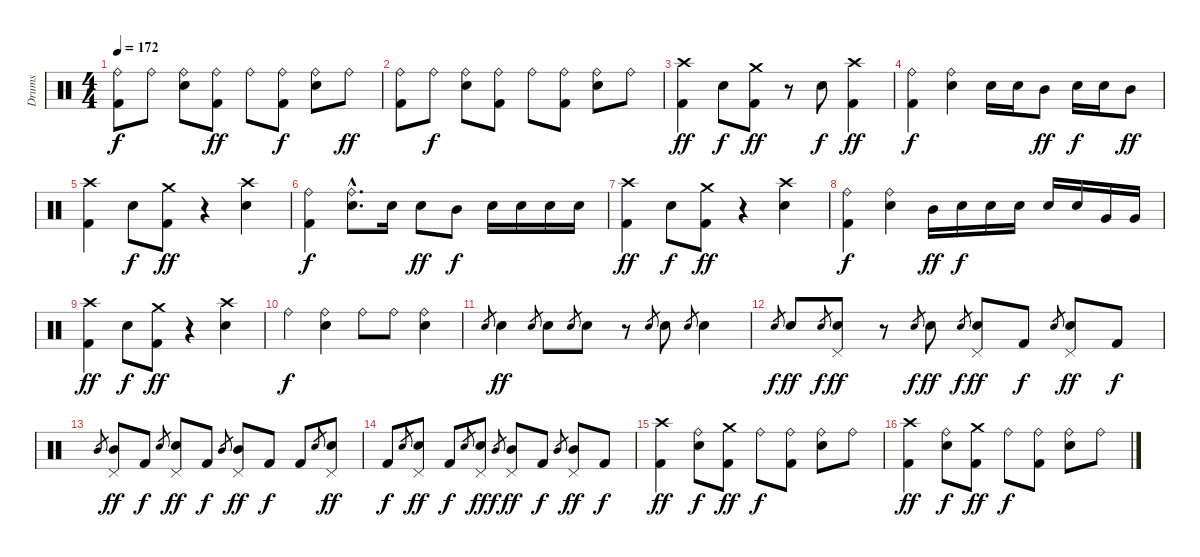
\track ("Drums" "Drums") {instrument percussion}
\staff {score}
\articulation defaults
\ts (4 4)
\tempo 172
\clef neutral
\ks c
("Ride (bell)" "Kick (hit) 2").8{dy f} "Ride (bell)".8 ("Ride (bell)" "Electric Snare (hit)").8 ("Ride (bell)" "Kick (hit) 2").8{dy ff} "Ride (bell)".8 ("Ride (bell)" "Kick (hit) 2").8{dy f} ("Ride (bell)" "Electric Snare (hit)").8 "Ride (bell)".8{dy ff} |
("Ride (bell)" "Kick (hit) 2").8 "Ride (bell)".8{dy f} ("Ride (bell)" "Electric Snare (hit)").8 ("Ride (bell)" "Kick (hit) 2").8 "Ride (bell)".8 ("Ride (bell)" "Kick (hit) 2").8 ("Ride (bell)" "Electric Snare (hit)").8 "Ride (bell)".8 |
("Crash high (hit)" "Kick (hit) 2").4{dy ff} "Electric Snare (hit)".8{dy f} ("Crash medium (hit)" "Kick (hit) 2").8{dy ff} r.8 "Electric Snare (hit)".8{dy f} ("Crash high (hit)" "Kick (hit) 2").4{dy ff} |
("Ride (bell)" "Kick (hit) 2").4{dy f} ("Ride (bell)" "Electric Snare (hit)").4 "Electric Snare (hit)".16 "Electric Snare (hit)".16 "Mid Tom (hit)".8{dy ff} "Electric Snare (hit)".16{dy f} "Electric Snare (hit)".16 "Mid Tom (hit)".8{dy ff} |
("Crash high (hit)" "Kick (hit) 2").4 "Electric Snare (hit)".8{dy f} ("Crash medium (hit)" "Kick (hit) 2").8{dy ff} r.4 ("Crash high (hit)" "Electric Snare (hit)").4 |
("Ride (bell)" "Kick (hit) 2").4{dy f} ("Ride (bell)"{hac} "Electric Snare (hit)"{hac}).8{d} "Electric Snare (hit)".16 "Electric Snare (hit)".8{dy ff} "Mid Tom (hit)".8{dy f} "Electric Snare (hit)".16 "Electric Snare (hit)".16 "Electric Snare (hit)".16 "Electric Snare (hit)".16 |
("Crash high (hit)" "Kick (hit) 2").4{dy ff} "Electric Snare (hit)".8{dy f} ("Crash medium (hit)" "Kick (hit) 2").8{dy ff} r.4 ("Crash high (hit)" "Electric Snare (hit)").4 |
("Ride (bell)" "Kick (hit) 2").4{dy f} ("Ride (bell)" "Electric Snare (hit)").4 "Mid Tom (hit)".16{dy ff} "Electric Snare (hit)".16{dy f} "Electric Snare (hit)".16 "Electric Snare (hit)".16 "Electric Snare (hit)".16 "Electric Snare (hit)".16 "Very Low Tom (hit)".16 "Very Low Tom (hit)".16 |
("Crash high (hit)" "Kick (hit) 2").4{dy ff} "Electric Snare (hit)".8{dy f} ("Crash medium (hit)" "Kick (hit) 2").8{dy ff} r.4 ("Crash high (hit)" "Electric Snare (hit)").4 |
"Ride (bell)".4{dy f} ("Ride (bell)" "Electric Snare (hit)").4 "Ride (bell)".8 "Ride (bell)".8 ("Ride (bell)" "Electric Snare (hit)").4 |
"Electric Snare (hit)".8{gr} "Electric Snare (hit)".4{dy ff} "Electric Snare (hit)".8{gr} "Electric Snare (hit)".8 "Electric Snare (hit)".8{gr} "Electric Snare (hit)".8 r.8 "Electric Snare (hit)".8{gr} "Electric Snare (hit)".8 "Electric Snare (hit)".8{gr} "Electric Snare (hit)".4 |
"Electric Snare (hit)".8{gr dy f} "Electric Snare (hit)".8{dy ff} "Electric Snare (hit)".8{gr dy f} ("Electric Snare (hit)" "Pedal Hi-Hat (hit)").8{dy ff} r.8 "Electric Snare (hit)".8{gr dy f} "Electric Snare (hit)".8{dy ff} "Electric Snare (hit)".8{gr dy f} ("Electric Snare (hit)" "Pedal Hi-Hat (hit)").8{dy ff} "Kick (hit) 2".8{dy f} "Electric Snare (hit)".8{gr} ("Electric Snare (hit)" "Pedal Hi-Hat (hit)").8{dy ff} "Kick (hit) 2".8{dy f} |
"Mid Tom (hit)".8{gr} ("Mid Tom (hit)" "Pedal Hi-Hat (hit)").8{dy ff} "Kick (hit) 2".8{dy f} "Electric Snare (hit)".8{gr} ("Electric Snare (hit)" "Pedal Hi-Hat (hit)").8{dy ff} "Kick (hit) 2".8{dy f} "Mid Tom (hit)".8{gr} ("Mid Tom (hit)" "Pedal Hi-Hat (hit)").8{dy ff} "Kick (hit) 2".8{dy f} "Kick (hit) 2".8 "Electric Snare (hit)".8{gr} ("Electric Snare (hit)" "Pedal Hi-Hat (hit)").8{dy ff} |
"Kick (hit) 2".8{dy f} "Electric Snare (hit)".8{gr} ("Electric Snare (hit)" "Pedal Hi-Hat (hit)").8{dy ff} "Kick (hit) 2".8{dy f} "Electric Snare (hit)".8{gr} ("Electric Snare (hit)" "Pedal Hi-Hat (hit)").8{dy ff} "Mid Tom (hit)".8{gr dy f} ("Mid Tom (hit)" "Pedal Hi-Hat (hit)").8{dy ff} "Kick (hit) 2".8{dy f} "Mid Tom (hit)".8{gr} ("Mid Tom (hit)" "Pedal Hi-Hat (hit)").8{dy ff} "Kick (hit) 2".8{dy f} |
("Crash high (hit)" "Kick (hit) 2").4{dy ff} ("Ride (bell)" "Electric Snare (hit)").8{dy f} ("Crash medium (hit)" "Kick (hit) 2").8{dy ff} "Ride (bell)".8{dy f} ("Ride (bell)" "Kick (hit) 2").8 ("Ride (bell)" "Electric Snare (hit)").8 "Ride (bell)".8 |
("Crash high (hit)" "Kick (hit) 2").4{dy ff} ("Ride (bell)" "Electric Snare (hit)").8{dy f} ("Crash medium (hit)" "Kick (hit) 2").8{dy ff} "Ride (bell)".8{dy f} ("Ride (bell)" "Kick (hit) 2").8 ("Ride (bell)" "Electric Snare (hit)").8 "Ride (bell)".8
